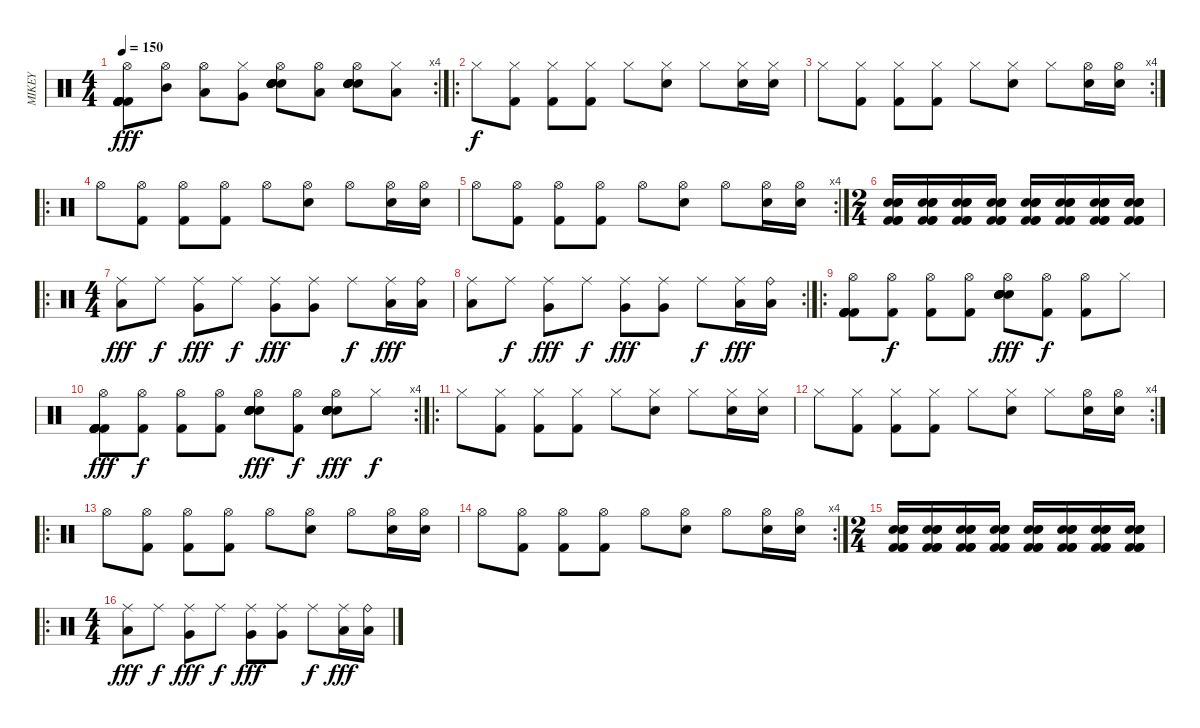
\track ("MIKEY" "MIKEY") {instrument percussion}
\staff {score}
\articulation defaults
\rc 4
\ts (4 4)
\tempo 150
\clef neutral
\ks c
("Kick (hit) 2" "Kick (hit) 2" "Kick (hit) 2" "Kick (hit) 2" "Kick (hit) 2" "Hi-Hat (open)").8{dy fff} ("Mid Tom (hit)" "Hi-Hat (open)").8 ("Low Tom (hit)" "Hi-Hat (open)").8 ("Very Low Tom (hit)" "Hi-Hat (closed)").8 ("Electric Snare (hit)" "Electric Snare (hit)" "Electric Snare (hit)" "Electric Snare (hit)" "Electric Snare (hit)" "Hi-Hat (open)").8 ("Low Floor Tom (hit)" "Hi-Hat (open)").8 ("Electric Snare (hit)" "Electric Snare (hit)" "Electric Snare (hit)" "Electric Snare (hit)" "Electric Snare (hit)" "Hi-Hat (open)").8 ("Low Floor Tom (hit)" "Hi-Hat (closed)").8 |
\ro "Hi-Hat (closed)".8{dy f}
("Kick (hit) 2" "Hi-Hat (closed)").8 ("Kick (hit) 2" "Hi-Hat (closed)").8 ("Kick (hit) 2" "Hi-Hat (closed)").8 "Hi-Hat (closed)".8 ("Electric Snare (hit)" "Hi-Hat (closed)").8 "Hi-Hat (closed)".8 ("Electric Snare (hit)" "Hi-Hat (closed)").16 ("Electric Snare (hit)" "Hi-Hat (closed)").16 |
\rc 4 "Hi-Hat (closed)".8
("Kick (hit) 2" "Hi-Hat (closed)").8 ("Kick (hit) 2" "Hi-Hat (closed)").8 ("Kick (hit) 2" "Hi-Hat (closed)").8 "Hi-Hat (closed)".8 ("Electric Snare (hit)" "Hi-Hat (closed)").8 "Hi-Hat (closed)".8 ("Electric Snare (hit)" "Hi-Hat (open)").16 ("Electric Snare (hit)" "Hi-Hat (open)").16 |
\ro "Hi-Hat (open)".8
("Kick (hit) 2" "Hi-Hat (open)").8 ("Kick (hit) 2" "Hi-Hat (open)").8 ("Kick (hit) 2" "Hi-Hat (open)").8 "Hi-Hat (open)".8 ("Electric Snare (hit)" "Hi-Hat (open)").8 "Hi-Hat (open)".8 ("Electric Snare (hit)" "Hi-Hat (open)").16 ("Electric Snare (hit)" "Hi-Hat (open)").16 |
\rc 4 "Hi-Hat (open)".8
("Kick (hit) 2" "Hi-Hat (open)").8 ("Kick (hit) 2" "Hi-Hat (open)").8 ("Kick (hit) 2" "Hi-Hat (open)").8 "Hi-Hat (open)".8 ("Electric Snare (hit)" "Hi-Hat (open)").8 "Hi-Hat (open)".8 ("Electric Snare (hit)" "Hi-Hat (open)").16 ("Electric Snare (hit)" "Hi-Hat (open)").16 |
\ts (2 4)
("Kick (hit) 2" "Kick (hit) 2" "Kick (hit) 2" "Electric Snare (hit)" "Electric Snare (hit)" "Electric Snare (hit)").16 ("Kick (hit) 2" "Kick (hit) 2" "Kick (hit) 2" "Electric Snare (hit)" "Electric Snare (hit)" "Electric Snare (hit)").16 ("Kick (hit) 2" "Kick (hit) 2" "Kick (hit) 2" "Electric Snare (hit)" "Electric Snare (hit)" "Electric Snare (hit)").16 ("Kick (hit) 2" "Kick (hit) 2" "Kick (hit) 2" "Electric Snare (hit)" "Electric Snare (hit)" "Electric Snare (hit)").16 ("Kick (hit) 2" "Kick (hit) 2" "Kick (hit) 2" "Electric Snare (hit)" "Electric Snare (hit)" "Electric Snare (hit)").16 ("Kick (hit) 2" "Kick (hit) 2" "Kick (hit) 2" "Electric Snare (hit)" "Electric Snare (hit)" "Electric Snare (hit)").16 ("Kick (hit) 2" "Kick (hit) 2" "Kick (hit) 2" "Electric Snare (hit)" "Electric Snare (hit)" "Electric Snare (hit)").16 ("Kick (hit) 2" "Kick (hit) 2" "Kick (hit) 2" "Electric Snare (hit)" "Electric Snare (hit)" "Electric Snare (hit)").16 |
\ro
\ts (4 4)
("Low Tom (hit)" "Ride (middle)").8{dy fff} "Ride (middle)".8{dy f} ("Very Low Tom (hit)" "Ride (middle)").8{dy fff} "Ride (middle)".8{dy f} ("Very Low Tom (hit)" "Ride (middle)").8{dy fff} ("Very Low Tom (hit)" "Ride (middle)").8 "Ride (middle)".8{dy f} ("Low Floor Tom (hit)" "Ride (middle)").16{dy fff} ("Low Floor Tom (hit)" "Ride (bell)").16 |
\rc 2
("Low Tom (hit)" "Ride (middle)").8 "Ride (middle)".8{dy f} ("Very Low Tom (hit)" "Ride (middle)").8{dy fff} "Ride (middle)".8{dy f} ("Very Low Tom (hit)" "Ride (middle)").8{dy fff} ("Very Low Tom (hit)" "Ride (middle)").8 "Ride (middle)".8{dy f} ("Low Floor Tom (hit)" "Ride (middle)").16{dy fff} ("Low Floor Tom (hit)" "Ride (bell)").16 |
\ro
("Kick (hit) 2" "Kick (hit) 2" "Kick (hit) 2" "Kick (hit) 2" "Kick (hit) 2" "Hi-Hat (open)").8 ("Kick (hit) 2" "Hi-Hat (open)").8{dy f} ("Kick (hit) 2" "Hi-Hat (open)").8 ("Kick (hit) 2" "Hi-Hat (open)").8 ("Electric Snare (hit)" "Electric Snare (hit)" "Electric Snare (hit)" "Electric Snare (hit)" "Electric Snare (hit)" "Hi-Hat (open)").8{dy fff} ("Kick (hit) 2" "Hi-Hat (open)").8{dy f} ("Kick (hit) 2" "Hi-Hat (open)").8 "Hi-Hat (closed)".8 |
\rc 4
("Kick (hit) 2" "Kick (hit) 2" "Kick (hit) 2" "Kick (hit) 2" "Kick (hit) 2" "Hi-Hat (open)").8{dy fff} ("Kick (hit) 2" "Hi-Hat (open)").8{dy f} ("Kick (hit) 2" "Hi-Hat (open)").8 ("Kick (hit) 2" "Hi-Hat (open)").8 ("Electric Snare (hit)" "Electric Snare (hit)" "Electric Snare (hit)" "Electric Snare (hit)" "Electric Snare (hit)" "Hi-Hat (open)").8{dy fff} ("Kick (hit) 2" "Hi-Hat (open)").8{dy f} ("Electric Snare (hit)" "Electric Snare (hit)" "Electric Snare (hit)" "Electric Snare (hit)" "Electric Snare (hit)" "Hi-Hat (open)").8{dy fff} "Hi-Hat (closed)".8{dy f} |
\ro "Hi-Hat (closed)".8
("Kick (hit) 2" "Hi-Hat (closed)").8 ("Kick (hit) 2" "Hi-Hat (closed)").8 ("Kick (hit) 2" "Hi-Hat (closed)").8 "Hi-Hat (closed)".8 ("Electric Snare (hit)" "Hi-Hat (closed)").8 "Hi-Hat (closed)".8 ("Electric Snare (hit)" "Hi-Hat (closed)").16 ("Electric Snare (hit)" "Hi-Hat (closed)").16 |
\rc 4 "Hi-Hat (closed)".8
("Kick (hit) 2" "Hi-Hat (closed)").8 ("Kick (hit) 2" "Hi-Hat (closed)").8 ("Kick (hit) 2" "Hi-Hat (closed)").8 "Hi-Hat (closed)".8 ("Electric Snare (hit)" "Hi-Hat (closed)").8 "Hi-Hat (closed)".8 ("Electric Snare (hit)" "Hi-Hat (open)").16 ("Electric Snare (hit)" "Hi-Hat (open)").16 |
\ro "Hi-Hat (open)".8
("Kick (hit) 2" "Hi-Hat (open)").8 ("Kick (hit) 2" "Hi-Hat (open)").8 ("Kick (hit) 2" "Hi-Hat (open)").8 "Hi-Hat (open)".8 ("Electric Snare (hit)" "Hi-Hat (open)").8 "Hi-Hat (open)".8 ("Electric Snare (hit)" "Hi-Hat (open)").16 ("Electric Snare (hit)" "Hi-Hat (open)").16 |
\rc 4 "Hi-Hat (open)".8
("Kick (hit) 2" "Hi-Hat (open)").8 ("Kick (hit) 2" "Hi-Hat (open)").8 ("Kick (hit) 2" "Hi-Hat (open)").8 "Hi-Hat (open)".8 ("Electric Snare (hit)" "Hi-Hat (open)").8 "Hi-Hat (open)".8 ("Electric Snare (hit)" "Hi-Hat (open)").16 ("Electric Snare (hit)" "Hi-Hat (open)").16 |
\ts (2 4)
("Kick (hit) 2" "Kick (hit) 2" "Kick (hit) 2" "Electric Snare (hit)" "Electric Snare (hit)" "Electric Snare (hit)").16 ("Kick (hit) 2" "Kick (hit) 2" "Kick (hit) 2" "Electric Snare (hit)" "Electric Snare (hit)" "Electric Snare (hit)").16 ("Kick (hit) 2" "Kick (hit) 2" "Kick (hit) 2" "Electric Snare (hit)" "Electric Snare (hit)" "Electric Snare (hit)").16 ("Kick (hit) 2" "Kick (hit) 2" "Kick (hit) 2" "Electric Snare (hit)" "Electric Snare (hit)" "Electric Snare (hit)").16 ("Kick (hit) 2" "Kick (hit) 2" "Kick (hit) 2" "Electric Snare (hit)" "Electric Snare (hit)" "Electric Snare (hit)").16 ("Kick (hit) 2" "Kick (hit) 2" "Kick (hit) 2" "Electric Snare (hit)" "Electric Snare (hit)" "Electric Snare (hit)").16 ("Kick (hit) 2" "Kick (hit) 2" "Kick (hit) 2" "Electric Snare (hit)" "Electric Snare (hit)" "Electric Snare (hit)").16 ("Kick (hit) 2" "Kick (hit) 2" "Kick (hit) 2" "Electric Snare (hit)" "Electric Snare (hit)" "Electric Snare (hit)").16 |
\ro
\ts (4 4)
("Low Tom (hit)" "Ride (middle)").8{dy fff} "Ride (middle)".8{dy f} ("Very Low Tom (hit)" "Ride (middle)").8{dy fff} "Ride (middle)".8{dy f} ("Very Low Tom (hit)" "Ride (middle)").8{dy fff} ("Very Low Tom (hit)" "Ride (middle)").8 "Ride (middle)".8{dy f} ("Low Floor Tom (hit)" "Ride (middle)").16{dy fff} ("Low Floor Tom (hit)" "Ride (bell)").16
